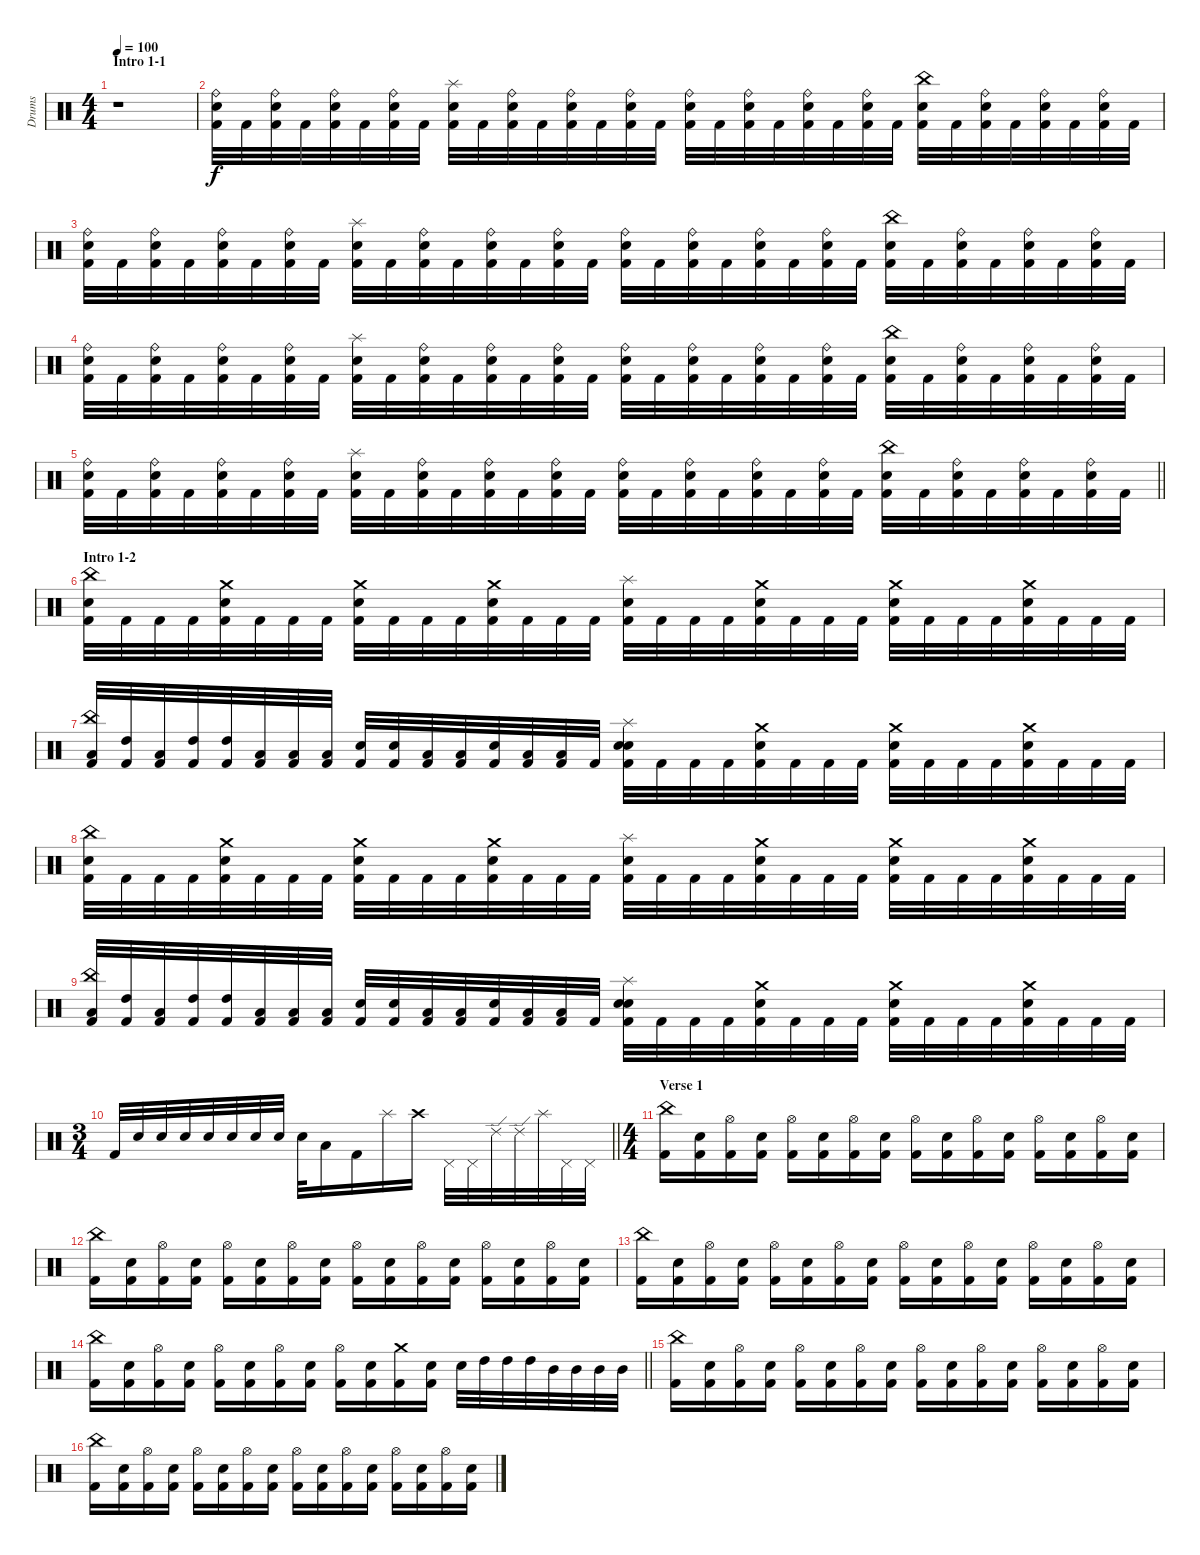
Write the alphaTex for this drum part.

\track ("Drums" "Drums") {instrument percussion}
\staff {score}
\articulation defaults
\ts (4 4)
\section ("" "Intro 1-1")
\tempo 100
\clef neutral
\ks c
r.1{dy f} |
("Kick (hit) 2" "Electric Snare (hit)" "Ride (bell)").32 "Kick (hit) 2".32 ("Kick (hit) 2" "Electric Snare (hit)" "Ride (bell)").32 "Kick (hit) 2".32 ("Kick (hit) 2" "Electric Snare (hit)" "Ride (bell)").32 "Kick (hit) 2".32 ("Kick (hit) 2" "Electric Snare (hit)" "Ride (bell)").32 "Kick (hit) 2".32 ("Kick (hit) 2" "Electric Snare (hit)" "Splash (hit)").32 "Kick (hit) 2".32 ("Kick (hit) 2" "Electric Snare (hit)" "Ride (bell)").32 "Kick (hit) 2".32 ("Kick (hit) 2" "Electric Snare (hit)" "Ride (bell)").32 "Kick (hit) 2".32 ("Kick (hit) 2" "Electric Snare (hit)" "Ride (bell)").32 "Kick (hit) 2".32 ("Kick (hit) 2" "Electric Snare (hit)" "Ride (bell)").32 "Kick (hit) 2".32 ("Kick (hit) 2" "Electric Snare (hit)" "Ride (bell)").32 "Kick (hit) 2".32 ("Kick (hit) 2" "Electric Snare (hit)" "Ride (bell)").32 "Kick (hit) 2".32 ("Kick (hit) 2" "Electric Snare (hit)" "Ride (bell)").32 "Kick (hit) 2".32 ("Kick (hit) 2" "Electric Snare (hit)" "China (hit)").32 "Kick (hit) 2".32 ("Kick (hit) 2" "Electric Snare (hit)" "Ride (bell)").32 "Kick (hit) 2".32 ("Kick (hit) 2" "Electric Snare (hit)" "Ride (bell)").32 "Kick (hit) 2".32 ("Kick (hit) 2" "Electric Snare (hit)" "Ride (bell)").32 "Kick (hit) 2".32 |
("Kick (hit) 2" "Electric Snare (hit)" "Ride (bell)").32 "Kick (hit) 2".32 ("Kick (hit) 2" "Electric Snare (hit)" "Ride (bell)").32 "Kick (hit) 2".32 ("Kick (hit) 2" "Electric Snare (hit)" "Ride (bell)").32 "Kick (hit) 2".32 ("Kick (hit) 2" "Electric Snare (hit)" "Ride (bell)").32 "Kick (hit) 2".32 ("Kick (hit) 2" "Electric Snare (hit)" "Splash (hit)").32 "Kick (hit) 2".32 ("Kick (hit) 2" "Electric Snare (hit)" "Ride (bell)").32 "Kick (hit) 2".32 ("Kick (hit) 2" "Electric Snare (hit)" "Ride (bell)").32 "Kick (hit) 2".32 ("Kick (hit) 2" "Electric Snare (hit)" "Ride (bell)").32 "Kick (hit) 2".32 ("Kick (hit) 2" "Electric Snare (hit)" "Ride (bell)").32 "Kick (hit) 2".32 ("Kick (hit) 2" "Electric Snare (hit)" "Ride (bell)").32 "Kick (hit) 2".32 ("Kick (hit) 2" "Electric Snare (hit)" "Ride (bell)").32 "Kick (hit) 2".32 ("Kick (hit) 2" "Electric Snare (hit)" "Ride (bell)").32 "Kick (hit) 2".32 ("Kick (hit) 2" "Electric Snare (hit)" "China (hit)").32 "Kick (hit) 2".32 ("Kick (hit) 2" "Electric Snare (hit)" "Ride (bell)").32 "Kick (hit) 2".32 ("Kick (hit) 2" "Electric Snare (hit)" "Ride (bell)").32 "Kick (hit) 2".32 ("Kick (hit) 2" "Electric Snare (hit)" "Ride (bell)").32 "Kick (hit) 2".32 |
("Kick (hit) 2" "Electric Snare (hit)" "Ride (bell)").32 "Kick (hit) 2".32 ("Kick (hit) 2" "Electric Snare (hit)" "Ride (bell)").32 "Kick (hit) 2".32 ("Kick (hit) 2" "Electric Snare (hit)" "Ride (bell)").32 "Kick (hit) 2".32 ("Kick (hit) 2" "Electric Snare (hit)" "Ride (bell)").32 "Kick (hit) 2".32 ("Kick (hit) 2" "Electric Snare (hit)" "Splash (hit)").32 "Kick (hit) 2".32 ("Kick (hit) 2" "Electric Snare (hit)" "Ride (bell)").32 "Kick (hit) 2".32 ("Kick (hit) 2" "Electric Snare (hit)" "Ride (bell)").32 "Kick (hit) 2".32 ("Kick (hit) 2" "Electric Snare (hit)" "Ride (bell)").32 "Kick (hit) 2".32 ("Kick (hit) 2" "Electric Snare (hit)" "Ride (bell)").32 "Kick (hit) 2".32 ("Kick (hit) 2" "Electric Snare (hit)" "Ride (bell)").32 "Kick (hit) 2".32 ("Kick (hit) 2" "Electric Snare (hit)" "Ride (bell)").32 "Kick (hit) 2".32 ("Kick (hit) 2" "Electric Snare (hit)" "Ride (bell)").32 "Kick (hit) 2".32 ("Kick (hit) 2" "Electric Snare (hit)" "China (hit)").32 "Kick (hit) 2".32 ("Kick (hit) 2" "Electric Snare (hit)" "Ride (bell)").32 "Kick (hit) 2".32 ("Kick (hit) 2" "Electric Snare (hit)" "Ride (bell)").32 "Kick (hit) 2".32 ("Kick (hit) 2" "Electric Snare (hit)" "Ride (bell)").32 "Kick (hit) 2".32 |
\barLineRight lightlight
("Kick (hit) 2" "Electric Snare (hit)" "Ride (bell)").32 "Kick (hit) 2".32 ("Kick (hit) 2" "Electric Snare (hit)" "Ride (bell)").32 "Kick (hit) 2".32 ("Kick (hit) 2" "Electric Snare (hit)" "Ride (bell)").32 "Kick (hit) 2".32 ("Kick (hit) 2" "Electric Snare (hit)" "Ride (bell)").32 "Kick (hit) 2".32 ("Kick (hit) 2" "Electric Snare (hit)" "Splash (hit)").32 "Kick (hit) 2".32 ("Kick (hit) 2" "Electric Snare (hit)" "Ride (bell)").32 "Kick (hit) 2".32 ("Kick (hit) 2" "Electric Snare (hit)" "Ride (bell)").32 "Kick (hit) 2".32 ("Kick (hit) 2" "Electric Snare (hit)" "Ride (bell)").32 "Kick (hit) 2".32 ("Kick (hit) 2" "Electric Snare (hit)" "Ride (bell)").32 "Kick (hit) 2".32 ("Kick (hit) 2" "Electric Snare (hit)" "Ride (bell)").32 "Kick (hit) 2".32 ("Kick (hit) 2" "Electric Snare (hit)" "Ride (bell)").32 "Kick (hit) 2".32 ("Kick (hit) 2" "Electric Snare (hit)" "Ride (bell)").32 "Kick (hit) 2".32 ("Kick (hit) 2" "Electric Snare (hit)" "China (hit)").32 "Kick (hit) 2".32 ("Kick (hit) 2" "Electric Snare (hit)" "Ride (bell)").32 "Kick (hit) 2".32 ("Kick (hit) 2" "Electric Snare (hit)" "Ride (bell)").32 "Kick (hit) 2".32 ("Kick (hit) 2" "Electric Snare (hit)" "Ride (bell)").32 "Kick (hit) 2".32 |
\section ("" "Intro 1-2")
("Kick (hit) 2" "Electric Snare (hit)" "China (hit)").32 "Kick (hit) 2".32 "Kick (hit) 2".32 "Kick (hit) 2".32 ("Kick (hit) 2" "Electric Snare (hit)" "Crash medium (hit)").32 "Kick (hit) 2".32 "Kick (hit) 2".32 "Kick (hit) 2".32 ("Kick (hit) 2" "Electric Snare (hit)" "Crash medium (hit)").32 "Kick (hit) 2".32 "Kick (hit) 2".32 "Kick (hit) 2".32 ("Kick (hit) 2" "Electric Snare (hit)" "Crash medium (hit)").32 "Kick (hit) 2".32 "Kick (hit) 2".32 "Kick (hit) 2".32 ("Kick (hit) 2" "Electric Snare (hit)" "Splash (hit)").32 "Kick (hit) 2".32 "Kick (hit) 2".32 "Kick (hit) 2".32 ("Kick (hit) 2" "Electric Snare (hit)" "Crash medium (hit)").32 "Kick (hit) 2".32 "Kick (hit) 2".32 "Kick (hit) 2".32 ("Kick (hit) 2" "Electric Snare (hit)" "Crash medium (hit)").32 "Kick (hit) 2".32 "Kick (hit) 2".32 "Kick (hit) 2".32 ("Kick (hit) 2" "Electric Snare (hit)" "Crash medium (hit)").32 "Kick (hit) 2".32 "Kick (hit) 2".32 "Kick (hit) 2".32 |
("Kick (hit) 2" "Low Tom (hit)" "China (hit)").32 ("Kick (hit) 2" "High Tom (hit)").32 ("Kick (hit) 2" "Low Tom (hit)").32 ("Kick (hit) 2" "High Tom (hit)").32 ("Kick (hit) 2" "High Tom (hit)").32 ("Kick (hit) 2" "Low Tom (hit)").32 ("Kick (hit) 2" "Low Tom (hit)").32 ("Kick (hit) 2" "Low Floor Tom (hit)").32 ("Kick (hit) 2" "Electric Snare (hit)").32 ("Kick (hit) 2" "Electric Snare (hit)").32 ("Kick (hit) 2" "Low Floor Tom (hit)").32 ("Kick (hit) 2" "Low Tom (hit)").32 ("Kick (hit) 2" "Electric Snare (hit)").32 ("Kick (hit) 2" "Low Tom (hit)").32 ("Kick (hit) 2" "Low Floor Tom (hit)").32 "Kick (hit) 2".32 ("Kick (hit) 2" "Electric Snare (hit)" "Splash (hit)" "Electric Snare (hit)").32 "Kick (hit) 2".32 "Kick (hit) 2".32 "Kick (hit) 2".32 ("Kick (hit) 2" "Electric Snare (hit)" "Crash medium (hit)").32 "Kick (hit) 2".32 "Kick (hit) 2".32 "Kick (hit) 2".32 ("Kick (hit) 2" "Electric Snare (hit)" "Crash medium (hit)").32 "Kick (hit) 2".32 "Kick (hit) 2".32 "Kick (hit) 2".32 ("Kick (hit) 2" "Electric Snare (hit)" "Crash medium (hit)").32 "Kick (hit) 2".32 "Kick (hit) 2".32 "Kick (hit) 2".32 |
("Kick (hit) 2" "Electric Snare (hit)" "China (hit)").32 "Kick (hit) 2".32 "Kick (hit) 2".32 "Kick (hit) 2".32 ("Kick (hit) 2" "Electric Snare (hit)" "Crash medium (hit)").32 "Kick (hit) 2".32 "Kick (hit) 2".32 "Kick (hit) 2".32 ("Kick (hit) 2" "Electric Snare (hit)" "Crash medium (hit)").32 "Kick (hit) 2".32 "Kick (hit) 2".32 "Kick (hit) 2".32 ("Kick (hit) 2" "Electric Snare (hit)" "Crash medium (hit)").32 "Kick (hit) 2".32 "Kick (hit) 2".32 "Kick (hit) 2".32 ("Kick (hit) 2" "Electric Snare (hit)" "Splash (hit)").32 "Kick (hit) 2".32 "Kick (hit) 2".32 "Kick (hit) 2".32 ("Kick (hit) 2" "Electric Snare (hit)" "Crash medium (hit)").32 "Kick (hit) 2".32 "Kick (hit) 2".32 "Kick (hit) 2".32 ("Kick (hit) 2" "Electric Snare (hit)" "Crash medium (hit)").32 "Kick (hit) 2".32 "Kick (hit) 2".32 "Kick (hit) 2".32 ("Kick (hit) 2" "Electric Snare (hit)" "Crash medium (hit)").32 "Kick (hit) 2".32 "Kick (hit) 2".32 "Kick (hit) 2".32 |
("Kick (hit) 2" "Low Tom (hit)" "China (hit)").32 ("Kick (hit) 2" "High Tom (hit)").32 ("Kick (hit) 2" "Low Tom (hit)").32 ("Kick (hit) 2" "High Tom (hit)").32 ("Kick (hit) 2" "High Tom (hit)").32 ("Kick (hit) 2" "Low Tom (hit)").32 ("Kick (hit) 2" "Low Tom (hit)").32 ("Kick (hit) 2" "Low Floor Tom (hit)").32 ("Kick (hit) 2" "Electric Snare (hit)").32 ("Kick (hit) 2" "Electric Snare (hit)").32 ("Kick (hit) 2" "Low Floor Tom (hit)").32 ("Kick (hit) 2" "Low Tom (hit)").32 ("Kick (hit) 2" "Electric Snare (hit)").32 ("Kick (hit) 2" "Low Tom (hit)").32 ("Kick (hit) 2" "Low Floor Tom (hit)").32 "Kick (hit) 2".32 ("Kick (hit) 2" "Electric Snare (hit)" "Splash (hit)" "Electric Snare (hit)").32 "Kick (hit) 2".32 "Kick (hit) 2".32 "Kick (hit) 2".32 ("Kick (hit) 2" "Electric Snare (hit)" "Crash medium (hit)").32 "Kick (hit) 2".32 "Kick (hit) 2".32 "Kick (hit) 2".32 ("Kick (hit) 2" "Electric Snare (hit)" "Crash medium (hit)").32 "Kick (hit) 2".32 "Kick (hit) 2".32 "Kick (hit) 2".32 ("Kick (hit) 2" "Electric Snare (hit)" "Crash medium (hit)").32 "Kick (hit) 2".32 "Kick (hit) 2".32 "Kick (hit) 2".32 |
\ts (3 4)
\barLineRight lightlight "Kick (hit) 2".32 "Electric Snare (hit)".32 "Electric Snare (hit)".32 "Electric Snare (hit)".32 "Electric Snare (hit)".32 "Electric Snare (hit)".32 "Electric Snare (hit)".32 "Electric Snare (hit)".32 "Electric Snare (hit)".32 "Low Tom (hit)".16 "Kick (hit) 2".16 "Splash (hit)".16 "Crash high (hit)".16 "Pedal Hi-Hat (hit)".32 "Pedal Hi-Hat (hit)".32 "Ride (edge) 2".32 "Ride (edge) 2".32 "Splash (hit)".32 "Pedal Hi-Hat (hit)".32 "Pedal Hi-Hat (hit)".32
|
\ts (4 4)
\section ("" "Verse 1")
("Kick (hit) 2" "China (hit)").16 ("Kick (hit) 2" "Electric Snare (hit)").16 ("Kick (hit) 2" "Hi-Hat (open)").16 ("Kick (hit) 2" "Electric Snare (hit)").16 ("Kick (hit) 2" "Hi-Hat (open)").16 ("Kick (hit) 2" "Electric Snare (hit)").16 ("Kick (hit) 2" "Hi-Hat (open)").16 ("Kick (hit) 2" "Electric Snare (hit)").16 ("Kick (hit) 2" "Hi-Hat (open)").16 ("Kick (hit) 2" "Electric Snare (hit)").16 ("Kick (hit) 2" "Hi-Hat (open)").16 ("Kick (hit) 2" "Electric Snare (hit)").16 ("Kick (hit) 2" "Hi-Hat (open)").16 ("Kick (hit) 2" "Electric Snare (hit)").16 ("Kick (hit) 2" "Hi-Hat (open)").16 ("Kick (hit) 2" "Electric Snare (hit)").16 |
("Kick (hit) 2" "China (hit)").16 ("Kick (hit) 2" "Electric Snare (hit)").16 ("Kick (hit) 2" "Hi-Hat (open)").16 ("Kick (hit) 2" "Electric Snare (hit)").16 ("Kick (hit) 2" "Hi-Hat (open)").16 ("Kick (hit) 2" "Electric Snare (hit)").16 ("Kick (hit) 2" "Hi-Hat (open)").16 ("Kick (hit) 2" "Electric Snare (hit)").16 ("Kick (hit) 2" "Hi-Hat (open)").16 ("Kick (hit) 2" "Electric Snare (hit)").16 ("Kick (hit) 2" "Hi-Hat (open)").16 ("Kick (hit) 2" "Electric Snare (hit)").16 ("Kick (hit) 2" "Hi-Hat (open)").16 ("Kick (hit) 2" "Electric Snare (hit)").16 ("Kick (hit) 2" "Hi-Hat (open)").16 ("Kick (hit) 2" "Electric Snare (hit)").16 |
("Kick (hit) 2" "China (hit)").16 ("Kick (hit) 2" "Electric Snare (hit)").16 ("Kick (hit) 2" "Hi-Hat (open)").16 ("Kick (hit) 2" "Electric Snare (hit)").16 ("Kick (hit) 2" "Hi-Hat (open)").16 ("Kick (hit) 2" "Electric Snare (hit)").16 ("Kick (hit) 2" "Hi-Hat (open)").16 ("Kick (hit) 2" "Electric Snare (hit)").16 ("Kick (hit) 2" "Hi-Hat (open)").16 ("Kick (hit) 2" "Electric Snare (hit)").16 ("Kick (hit) 2" "Hi-Hat (open)").16 ("Kick (hit) 2" "Electric Snare (hit)").16 ("Kick (hit) 2" "Hi-Hat (open)").16 ("Kick (hit) 2" "Electric Snare (hit)").16 ("Kick (hit) 2" "Hi-Hat (open)").16 ("Kick (hit) 2" "Electric Snare (hit)").16 |
\barLineRight lightlight
("Kick (hit) 2" "China (hit)").16 ("Kick (hit) 2" "Electric Snare (hit)").16 ("Kick (hit) 2" "Hi-Hat (open)").16 ("Kick (hit) 2" "Electric Snare (hit)").16 ("Kick (hit) 2" "Hi-Hat (open)").16 ("Kick (hit) 2" "Electric Snare (hit)").16 ("Kick (hit) 2" "Hi-Hat (open)").16 ("Kick (hit) 2" "Electric Snare (hit)").16 ("Kick (hit) 2" "Hi-Hat (open)").16 ("Kick (hit) 2" "Electric Snare (hit)").16 ("Kick (hit) 2" "Crash medium (hit)").16 ("Kick (hit) 2" "Electric Snare (hit)").16 "Electric Snare (hit)".32 "High Tom (hit)".32 "High Tom (hit)".32 "High Tom (hit)".32 "Mid Tom (hit)".32 "Mid Tom (hit)".32 "Mid Tom (hit)".32 "Mid Tom (hit)".32 |
("Kick (hit) 2" "China (hit)").16 ("Kick (hit) 2" "Electric Snare (hit)").16 ("Kick (hit) 2" "Hi-Hat (open)").16 ("Kick (hit) 2" "Electric Snare (hit)").16 ("Kick (hit) 2" "Hi-Hat (open)").16 ("Kick (hit) 2" "Electric Snare (hit)").16 ("Kick (hit) 2" "Hi-Hat (open)").16 ("Kick (hit) 2" "Electric Snare (hit)").16 ("Kick (hit) 2" "Hi-Hat (open)").16 ("Kick (hit) 2" "Electric Snare (hit)").16 ("Kick (hit) 2" "Hi-Hat (open)").16 ("Kick (hit) 2" "Electric Snare (hit)").16 ("Kick (hit) 2" "Hi-Hat (open)").16 ("Kick (hit) 2" "Electric Snare (hit)").16 ("Kick (hit) 2" "Hi-Hat (open)").16 ("Kick (hit) 2" "Electric Snare (hit)").16 |
("Kick (hit) 2" "China (hit)").16 ("Kick (hit) 2" "Electric Snare (hit)").16 ("Kick (hit) 2" "Hi-Hat (open)").16 ("Kick (hit) 2" "Electric Snare (hit)").16 ("Kick (hit) 2" "Hi-Hat (open)").16 ("Kick (hit) 2" "Electric Snare (hit)").16 ("Kick (hit) 2" "Hi-Hat (open)").16 ("Kick (hit) 2" "Electric Snare (hit)").16 ("Kick (hit) 2" "Hi-Hat (open)").16 ("Kick (hit) 2" "Electric Snare (hit)").16 ("Kick (hit) 2" "Hi-Hat (open)").16 ("Kick (hit) 2" "Electric Snare (hit)").16 ("Kick (hit) 2" "Hi-Hat (open)").16 ("Kick (hit) 2" "Electric Snare (hit)").16 ("Kick (hit) 2" "Hi-Hat (open)").16 ("Kick (hit) 2" "Electric Snare (hit)").16
